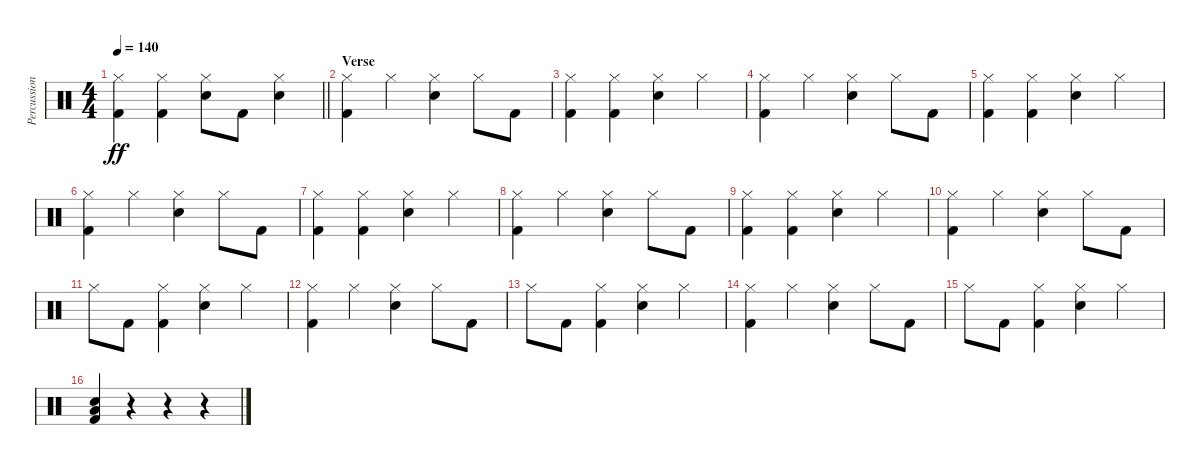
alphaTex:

\track ("Percussion" "Percussion") {instrument percussion}
\staff {score}
\articulation defaults
\ts (4 4)
\tempo 140
\clef neutral
\barLineRight lightlight
\ks c
("Hi-Hat (closed)" "Kick (hit) 2").4{dy ff} ("Hi-Hat (closed)" "Kick (hit) 2").4 ("Hi-Hat (closed)" "Snare (hit) 2").8 "Kick (hit) 2".8 ("Hi-Hat (closed)" "Snare (hit) 2").4 |
\section ("" "Verse")
("Hi-Hat (closed)" "Kick (hit) 2").4 "Hi-Hat (closed)".4 ("Hi-Hat (closed)" "Snare (hit) 2").4 "Hi-Hat (closed)".8 "Kick (hit) 2".8 |
("Hi-Hat (closed)" "Kick (hit) 2").4 ("Hi-Hat (closed)" "Kick (hit) 2").4 ("Hi-Hat (closed)" "Snare (hit) 2").4 "Hi-Hat (closed)".4 |
("Hi-Hat (closed)" "Kick (hit) 2").4 "Hi-Hat (closed)".4 ("Hi-Hat (closed)" "Snare (hit) 2").4 "Hi-Hat (closed)".8 "Kick (hit) 2".8 |
("Hi-Hat (closed)" "Kick (hit) 2").4 ("Hi-Hat (closed)" "Kick (hit) 2").4 ("Hi-Hat (closed)" "Snare (hit) 2").4 "Hi-Hat (closed)".4 |
("Hi-Hat (closed)" "Kick (hit) 2").4 "Hi-Hat (closed)".4 ("Hi-Hat (closed)" "Snare (hit) 2").4 "Hi-Hat (closed)".8 "Kick (hit) 2".8 |
("Hi-Hat (closed)" "Kick (hit) 2").4 ("Hi-Hat (closed)" "Kick (hit) 2").4 ("Hi-Hat (closed)" "Snare (hit) 2").4 "Hi-Hat (closed)".4 |
("Hi-Hat (closed)" "Kick (hit) 2").4 "Hi-Hat (closed)".4 ("Hi-Hat (closed)" "Snare (hit) 2").4 "Hi-Hat (closed)".8 "Kick (hit) 2".8 |
("Hi-Hat (closed)" "Kick (hit) 2").4 ("Hi-Hat (closed)" "Kick (hit) 2").4 ("Hi-Hat (closed)" "Snare (hit) 2").4 "Hi-Hat (closed)".4 |
("Hi-Hat (closed)" "Kick (hit) 2").4 "Hi-Hat (closed)".4 ("Hi-Hat (closed)" "Snare (hit) 2").4 "Hi-Hat (closed)".8 "Kick (hit) 2".8 |
"Hi-Hat (closed)".8 "Kick (hit) 2".8 ("Hi-Hat (closed)" "Kick (hit) 2").4 ("Hi-Hat (closed)" "Snare (hit) 2").4 "Hi-Hat (closed)".4 |
("Hi-Hat (closed)" "Kick (hit) 2").4 "Hi-Hat (closed)".4 ("Hi-Hat (closed)" "Snare (hit) 2").4 "Hi-Hat (closed)".8 "Kick (hit) 2".8 |
"Hi-Hat (closed)".8 "Kick (hit) 2".8 ("Hi-Hat (closed)" "Kick (hit) 2").4 ("Hi-Hat (closed)" "Snare (hit) 2").4 "Hi-Hat (closed)".4 |
("Hi-Hat (closed)" "Kick (hit) 2").4 "Hi-Hat (closed)".4 ("Hi-Hat (closed)" "Snare (hit) 2").4 "Hi-Hat (closed)".8 "Kick (hit) 2".8 |
"Hi-Hat (closed)".8 "Kick (hit) 2".8 ("Hi-Hat (closed)" "Kick (hit) 2").4 ("Hi-Hat (closed)" "Snare (hit) 2").4 "Hi-Hat (closed)".4 |
("Snare (hit) 2" "Low Tom (hit)" "Kick (hit) 2").4 r.4 r.4 r.4
